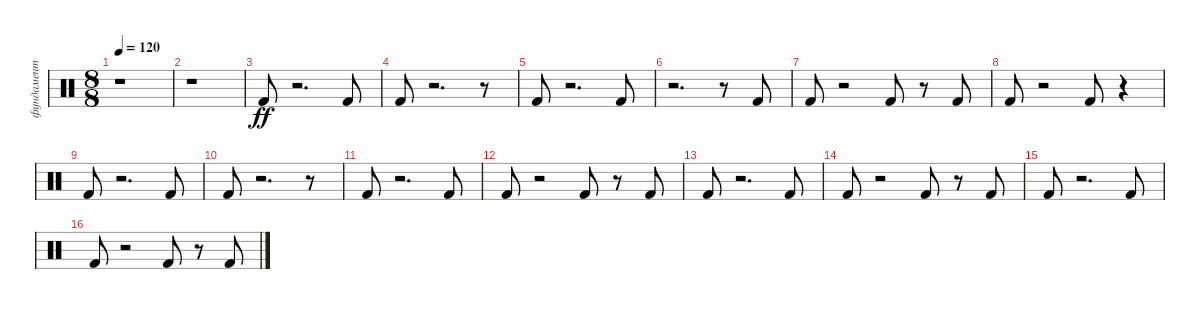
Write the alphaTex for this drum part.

\track ("фундамент" "фундамент") {instrument percussion}
\staff {score}
\articulation defaults
\ts (8 8)
\tempo 120
\clef neutral
\ks c
r.1{dy ff} |
r.1 |
"Kick (hit) 2".8 r.2{d} "Kick (hit) 2".8 |
"Kick (hit) 2".8 r.2{d} r.8 |
"Kick (hit) 2".8 r.2{d} "Kick (hit) 2".8 |
r.2{d} r.8 "Kick (hit) 2".8 |
"Kick (hit) 2".8 r.2 "Kick (hit) 2".8 r.8 "Kick (hit) 2".8 |
"Kick (hit) 2".8 r.2 "Kick (hit) 2".8 r.4 |
"Kick (hit) 2".8 r.2{d} "Kick (hit) 2".8 |
"Kick (hit) 2".8 r.2{d} r.8 |
"Kick (hit) 2".8 r.2{d} "Kick (hit) 2".8 |
"Kick (hit) 2".8 r.2 "Kick (hit) 2".8 r.8 "Kick (hit) 2".8 |
"Kick (hit) 2".8 r.2{d} "Kick (hit) 2".8 |
"Kick (hit) 2".8 r.2 "Kick (hit) 2".8 r.8 "Kick (hit) 2".8 |
"Kick (hit) 2".8 r.2{d} "Kick (hit) 2".8 |
"Kick (hit) 2".8 r.2 "Kick (hit) 2".8 r.8 "Kick (hit) 2".8
